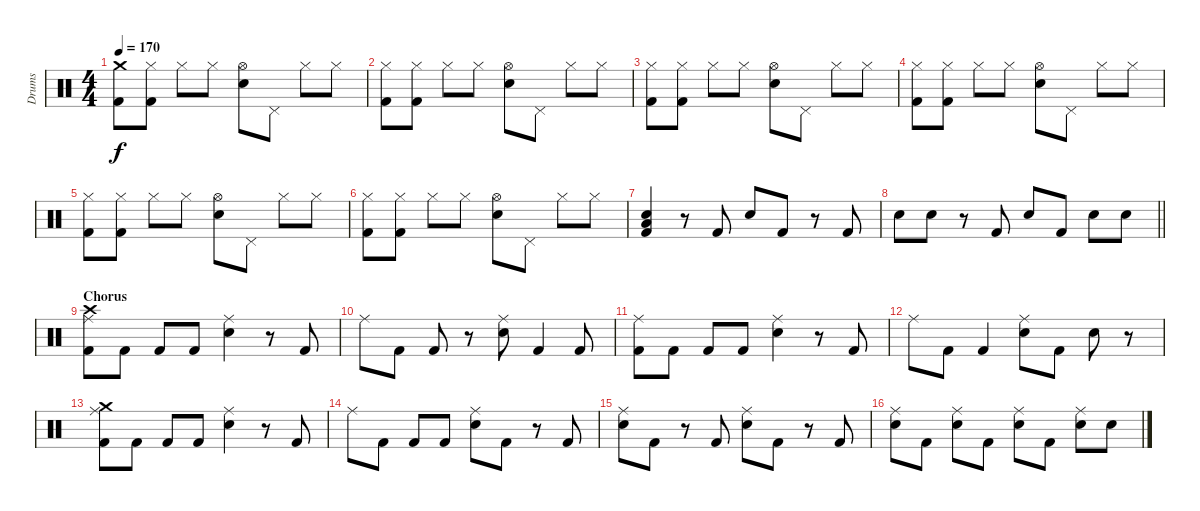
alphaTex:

\track ("Drums" "Drums") {instrument percussion}
\staff {score}
\articulation defaults
\ts (4 4)
\tempo 170
\clef neutral
\ks c
("Crash medium (hit)" "Kick (hit) 2").8{dy f} ("Hi-Hat (closed)" "Kick (hit) 2").8 "Hi-Hat (closed)".8 "Hi-Hat (closed)".8 ("Hi-Hat (open)" "Snare (hit) 2").8 "Pedal Hi-Hat (hit)".8 "Hi-Hat (closed)".8 "Hi-Hat (closed)".8 |
("Hi-Hat (closed)" "Kick (hit) 2").8 ("Hi-Hat (closed)" "Kick (hit) 2").8 "Hi-Hat (closed)".8 "Hi-Hat (closed)".8 ("Hi-Hat (open)" "Snare (hit) 2").8 "Pedal Hi-Hat (hit)".8 "Hi-Hat (closed)".8 "Hi-Hat (closed)".8 |
("Hi-Hat (closed)" "Kick (hit) 2").8 ("Hi-Hat (closed)" "Kick (hit) 2").8 "Hi-Hat (closed)".8 "Hi-Hat (closed)".8 ("Hi-Hat (open)" "Snare (hit) 2").8 "Pedal Hi-Hat (hit)".8 "Hi-Hat (closed)".8 "Hi-Hat (closed)".8 |
("Hi-Hat (closed)" "Kick (hit) 2").8 ("Hi-Hat (closed)" "Kick (hit) 2").8 "Hi-Hat (closed)".8 "Hi-Hat (closed)".8 ("Hi-Hat (open)" "Snare (hit) 2").8 "Pedal Hi-Hat (hit)".8 "Hi-Hat (closed)".8 "Hi-Hat (closed)".8 |
("Hi-Hat (closed)" "Kick (hit) 2").8 ("Hi-Hat (closed)" "Kick (hit) 2").8 "Hi-Hat (closed)".8 "Hi-Hat (closed)".8 ("Hi-Hat (open)" "Snare (hit) 2").8 "Pedal Hi-Hat (hit)".8 "Hi-Hat (closed)".8 "Hi-Hat (closed)".8 |
("Hi-Hat (closed)" "Kick (hit) 2").8 ("Hi-Hat (closed)" "Kick (hit) 2").8 "Hi-Hat (closed)".8 "Hi-Hat (closed)".8 ("Hi-Hat (open)" "Snare (hit) 2").8 "Pedal Hi-Hat (hit)".8 "Hi-Hat (closed)".8 "Hi-Hat (closed)".8 |
("Low Floor Tom (hit)" "Snare (hit) 2" "Kick (hit) 2").4 r.8{volume 5} "Kick (hit) 2".8 "Snare (hit) 2".8 "Kick (hit) 2".8 r.8 "Kick (hit) 2".8 |
\barLineRight lightlight "Snare (hit) 2".8 "Snare (hit) 2".8
r.8 "Kick (hit) 2".8 "Snare (hit) 2".8 "Kick (hit) 2".8 "Snare (hit) 2".8 "Snare (hit) 2".8 |
\section ("" "Chorus")
("Ride (middle)" "Crash high (hit)" "Kick (hit) 2").8{volume 13} "Kick (hit) 2".8 "Kick (hit) 2".8 "Kick (hit) 2".8 ("Ride (middle)" "Snare (hit) 2").4 r.8 "Kick (hit) 2".8 |
"Ride (middle)".8 "Kick (hit) 2".8 "Kick (hit) 2".8 r.8 ("Ride (middle)" "Snare (hit) 2").8 "Kick (hit) 2".4 "Kick (hit) 2".8 |
("Ride (middle)" "Kick (hit) 2").8 "Kick (hit) 2".8 "Kick (hit) 2".8 "Kick (hit) 2".8 ("Ride (middle)" "Snare (hit) 2").4 r.8 "Kick (hit) 2".8 |
"Ride (middle)".8 "Kick (hit) 2".8 "Kick (hit) 2".4 ("Ride (middle)" "Snare (hit) 2").8 "Kick (hit) 2".8 "Snare (hit) 2".8 r.8 |
("Ride (middle)" "Crash medium (hit)" "Kick (hit) 2").8 "Kick (hit) 2".8 "Kick (hit) 2".8 "Kick (hit) 2".8 ("Ride (middle)" "Snare (hit) 2").4 r.8 "Kick (hit) 2".8 |
"Ride (middle)".8 "Kick (hit) 2".8 "Kick (hit) 2".8 "Kick (hit) 2".8 ("Ride (middle)" "Snare (hit) 2").8 "Kick (hit) 2".8 r.8 "Kick (hit) 2".8 |
("Ride (middle)" "Snare (hit) 2").8 "Kick (hit) 2".8 r.8 "Kick (hit) 2".8 ("Ride (middle)" "Snare (hit) 2").8 "Kick (hit) 2".8 r.8 "Kick (hit) 2".8 |
("Ride (middle)" "Snare (hit) 2").8 "Kick (hit) 2".8 ("Ride (middle)" "Snare (hit) 2").8 "Kick (hit) 2".8 ("Ride (middle)" "Snare (hit) 2").8 "Kick (hit) 2".8 ("Ride (middle)" "Snare (hit) 2").8 "Snare (hit) 2".8
